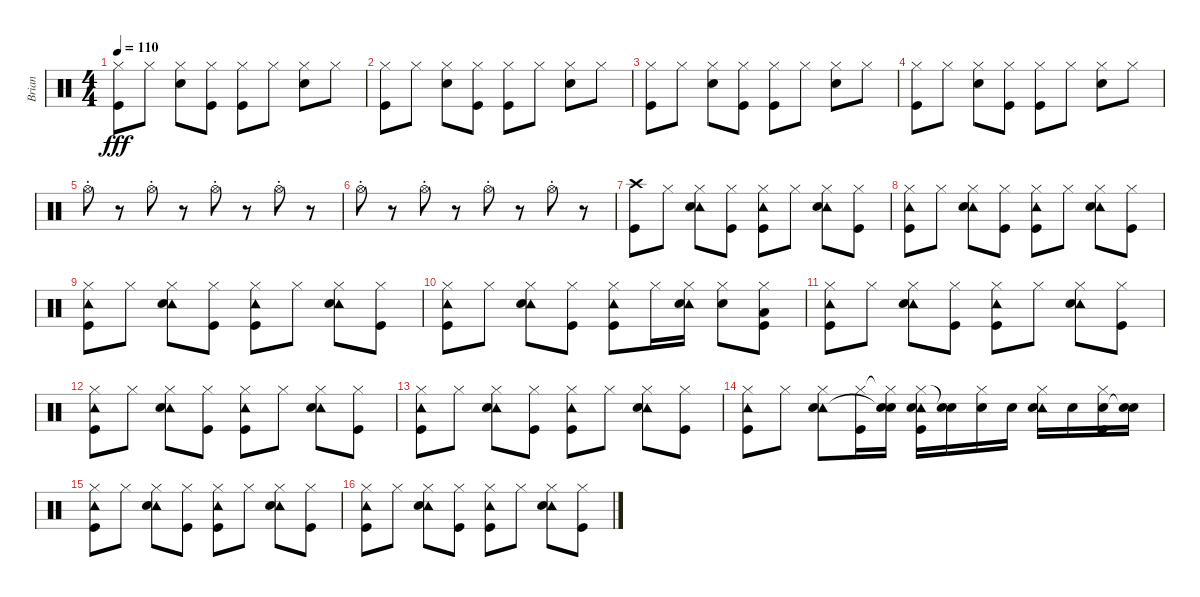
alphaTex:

\track ("Brian" "Brian") {instrument percussion}
\staff {score}
\articulation defaults
\ts (4 4)
\tempo 110
\clef neutral
\ks c
("Hi-Hat (closed)" "Kick (hit)").8{dy fff} "Hi-Hat (closed)".8 ("Hi-Hat (closed)" "Electric Snare (hit)").8 ("Hi-Hat (closed)" "Kick (hit)").8 ("Hi-Hat (closed)" "Kick (hit)").8 "Hi-Hat (closed)".8 ("Hi-Hat (closed)" "Electric Snare (hit)").8 "Hi-Hat (closed)".8 |
("Hi-Hat (closed)" "Kick (hit)").8 "Hi-Hat (closed)".8 ("Hi-Hat (closed)" "Electric Snare (hit)").8 ("Hi-Hat (closed)" "Kick (hit)").8 ("Hi-Hat (closed)" "Kick (hit)").8 "Hi-Hat (closed)".8 ("Hi-Hat (closed)" "Electric Snare (hit)").8 "Hi-Hat (closed)".8 |
("Hi-Hat (closed)" "Kick (hit)").8 "Hi-Hat (closed)".8 ("Hi-Hat (closed)" "Electric Snare (hit)").8 ("Hi-Hat (closed)" "Kick (hit)").8 ("Hi-Hat (closed)" "Kick (hit)").8 "Hi-Hat (closed)".8 ("Hi-Hat (closed)" "Electric Snare (hit)").8 "Hi-Hat (closed)".8 |
("Hi-Hat (closed)" "Kick (hit)").8 "Hi-Hat (closed)".8 ("Hi-Hat (closed)" "Electric Snare (hit)").8 ("Hi-Hat (closed)" "Kick (hit)").8 ("Hi-Hat (closed)" "Kick (hit)").8 "Hi-Hat (closed)".8 ("Hi-Hat (closed)" "Electric Snare (hit)").8 "Hi-Hat (closed)".8 |
"Hi-Hat (open)"{st}.8 r.8 "Hi-Hat (open)"{st}.8 r.8 "Hi-Hat (open)"{st}.8 r.8 "Hi-Hat (open)"{st}.8 r.8 |
"Hi-Hat (open)"{st}.8 r.8 "Hi-Hat (open)"{st}.8 r.8 "Hi-Hat (open)"{st}.8 r.8 "Hi-Hat (open)"{st}.8 r.8 |
("Crash high (hit)" "Kick (hit)").8 "Hi-Hat (closed)".8 ("Tambourine (hit)" "Hi-Hat (closed)" "Electric Snare (hit)").8 ("Hi-Hat (closed)" "Kick (hit)").8 ("Tambourine (hit)" "Hi-Hat (closed)" "Kick (hit)").8 "Hi-Hat (closed)".8 ("Tambourine (hit)" "Hi-Hat (closed)" "Electric Snare (hit)").8 ("Hi-Hat (closed)" "Kick (hit)").8 |
("Tambourine (hit)" "Hi-Hat (closed)" "Kick (hit)").8 "Hi-Hat (closed)".8 ("Tambourine (hit)" "Hi-Hat (closed)" "Electric Snare (hit)").8 ("Hi-Hat (closed)" "Kick (hit)").8 ("Tambourine (hit)" "Hi-Hat (closed)" "Kick (hit)").8 "Hi-Hat (closed)".8 ("Tambourine (hit)" "Hi-Hat (closed)" "Electric Snare (hit)").8 ("Hi-Hat (closed)" "Kick (hit)").8 |
("Tambourine (hit)" "Hi-Hat (closed)" "Kick (hit)").8 "Hi-Hat (closed)".8 ("Tambourine (hit)" "Hi-Hat (closed)" "Electric Snare (hit)").8 ("Hi-Hat (closed)" "Kick (hit)").8 ("Tambourine (hit)" "Hi-Hat (closed)" "Kick (hit)").8 "Hi-Hat (closed)".8 ("Tambourine (hit)" "Hi-Hat (closed)" "Electric Snare (hit)").8 ("Hi-Hat (closed)" "Kick (hit)").8 |
("Tambourine (hit)" "Hi-Hat (closed)" "Kick (hit)").8 "Hi-Hat (closed)".8 ("Tambourine (hit)" "Hi-Hat (closed)" "Electric Snare (hit)").8 ("Hi-Hat (closed)" "Kick (hit)").8 ("Tambourine (hit)" "Hi-Hat (closed)" "Kick (hit)").8 "Hi-Hat (closed)".16 ("Tambourine (hit)" "Hi-Hat (closed)" "Electric Snare (hit)").16 ("Hi-Hat (closed)" "Electric Snare (hit)").8 ("Hi-Hat (closed)" "Low Tom (hit)" "Kick (hit)").8 |
("Tambourine (hit)" "Hi-Hat (closed)" "Kick (hit)").8 "Hi-Hat (closed)".8 ("Tambourine (hit)" "Hi-Hat (closed)" "Electric Snare (hit)").8 ("Hi-Hat (closed)" "Kick (hit)").8 ("Tambourine (hit)" "Hi-Hat (closed)" "Kick (hit)").8 "Hi-Hat (closed)".8 ("Tambourine (hit)" "Hi-Hat (closed)" "Electric Snare (hit)").8 ("Hi-Hat (closed)" "Kick (hit)").8 |
("Tambourine (hit)" "Hi-Hat (closed)" "Kick (hit)").8 "Hi-Hat (closed)".8 ("Tambourine (hit)" "Hi-Hat (closed)" "Electric Snare (hit)").8 ("Hi-Hat (closed)" "Kick (hit)").8 ("Tambourine (hit)" "Hi-Hat (closed)" "Kick (hit)").8 "Hi-Hat (closed)".8 ("Tambourine (hit)" "Hi-Hat (closed)" "Electric Snare (hit)").8 ("Hi-Hat (closed)" "Kick (hit)").8 |
("Tambourine (hit)" "Hi-Hat (closed)" "Kick (hit)").8 "Hi-Hat (closed)".8 ("Tambourine (hit)" "Hi-Hat (closed)" "Electric Snare (hit)").8 ("Hi-Hat (closed)" "Kick (hit)").8 ("Tambourine (hit)" "Hi-Hat (closed)" "Kick (hit)").8 "Hi-Hat (closed)".8 ("Tambourine (hit)" "Hi-Hat (closed)" "Electric Snare (hit)").8 ("Hi-Hat (closed)" "Kick (hit)").8 |
("Tambourine (hit)" "Hi-Hat (closed)" "Kick (hit)").8 "Hi-Hat (closed)".8 ("Tambourine (hit)" "Hi-Hat (closed)" "Electric Snare (hit)").8 ("Hi-Hat (closed)" "Kick (hit)").16 ("Hi-Hat (closed)"{t} "Electric Snare (hit)" "Snare (hit)"{t}).16 ("Tambourine (hit)" "Hi-Hat (closed)" "Electric Snare (hit)" "Kick (hit)").16 ("Electric Snare (hit)" "Snare (hit)"{t}).16 ("Hi-Hat (closed)" "Electric Snare (hit)").16 "Electric Snare (hit)".16 ("Tambourine (hit)" "Hi-Hat (closed)" "Electric Snare (hit)").16 "Electric Snare (hit)".16 ("Hi-Hat (closed)" "Electric Snare (hit)" "Kick (hit)").16 ("Electric Snare (hit)" "Snare (hit)"{t}).16 |
("Tambourine (hit)" "Hi-Hat (closed)" "Kick (hit)").8 "Hi-Hat (closed)".8 ("Tambourine (hit)" "Hi-Hat (closed)" "Electric Snare (hit)").8 ("Hi-Hat (closed)" "Kick (hit)").8 ("Tambourine (hit)" "Hi-Hat (closed)" "Kick (hit)").8 "Hi-Hat (closed)".8 ("Tambourine (hit)" "Hi-Hat (closed)" "Electric Snare (hit)").8 ("Hi-Hat (closed)" "Kick (hit)").8 |
("Tambourine (hit)" "Hi-Hat (closed)" "Kick (hit)").8 "Hi-Hat (closed)".8 ("Tambourine (hit)" "Hi-Hat (closed)" "Electric Snare (hit)").8 ("Hi-Hat (closed)" "Kick (hit)").8 ("Tambourine (hit)" "Hi-Hat (closed)" "Kick (hit)").8 "Hi-Hat (closed)".8 ("Tambourine (hit)" "Hi-Hat (closed)" "Electric Snare (hit)").8 ("Hi-Hat (closed)" "Kick (hit)").8
